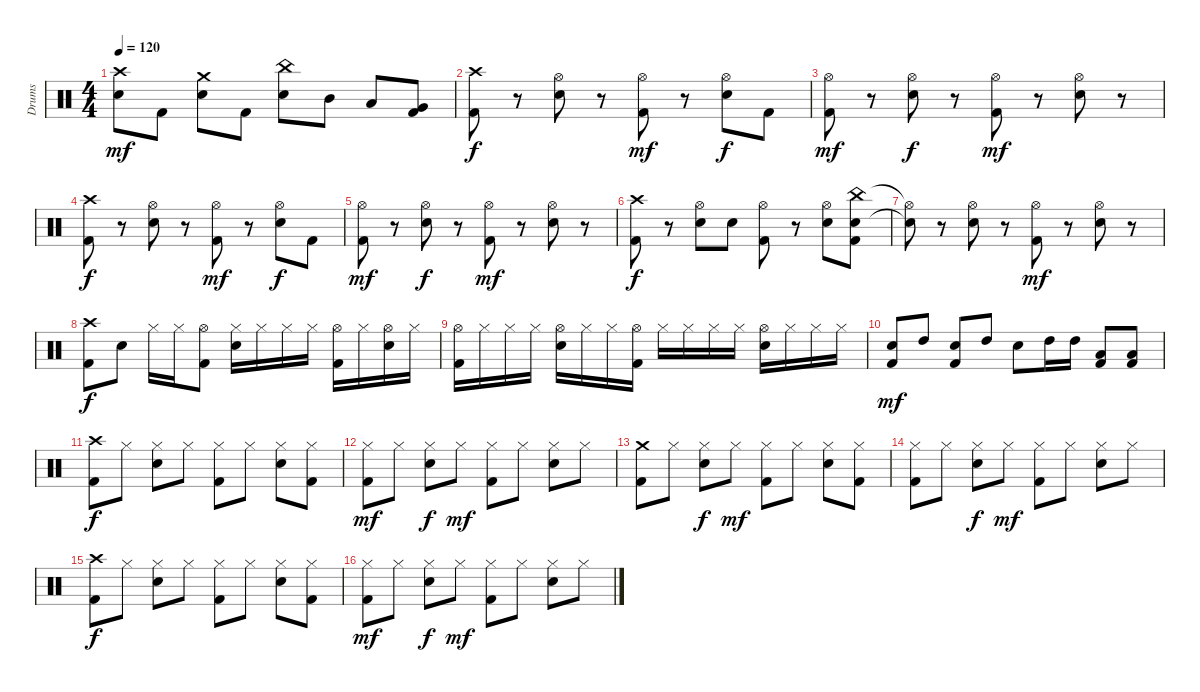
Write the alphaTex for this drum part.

\track ("Drums" "Drums") {instrument percussion}
\staff {score}
\articulation defaults
\ts (4 4)
\tempo 120
\clef neutral
\ks c
("Crash high (hit)" "Snare (hit) 2").8{dy mf} "Kick (hit) 2".8 ("Crash medium (hit)" "Snare (hit) 2").8 "Kick (hit) 2".8 ("China (hit)" "Snare (hit) 2").8 "Mid Tom (hit)".8 "Low Tom (hit)".8 ("Very Low Tom (hit)" "Kick (hit) 2").8 |
("Crash high (hit)" "Kick (hit) 2").8{dy f} r.8 ("Hi-Hat (open)" "Snare (hit) 2").8 r.8 ("Hi-Hat (open)" "Kick (hit) 2").8{dy mf} r.8 ("Hi-Hat (open)" "Snare (hit) 2").8{dy f} "Kick (hit) 2".8 |
("Hi-Hat (open)" "Kick (hit) 2").8{dy mf} r.8 ("Hi-Hat (open)" "Snare (hit) 2").8{dy f} r.8 ("Hi-Hat (open)" "Kick (hit) 2").8{dy mf} r.8 ("Hi-Hat (open)" "Snare (hit) 2").8 r.8 |
("Crash high (hit)" "Kick (hit) 2").8{dy f} r.8 ("Hi-Hat (open)" "Snare (hit) 2").8 r.8 ("Hi-Hat (open)" "Kick (hit) 2").8{dy mf} r.8 ("Hi-Hat (open)" "Snare (hit) 2").8{dy f} "Kick (hit) 2".8 |
("Hi-Hat (open)" "Kick (hit) 2").8{dy mf} r.8 ("Hi-Hat (open)" "Snare (hit) 2").8{dy f} r.8 ("Hi-Hat (open)" "Kick (hit) 2").8{dy mf} r.8 ("Hi-Hat (open)" "Snare (hit) 2").8 r.8 |
("Crash high (hit)" "Kick (hit) 2").8{dy f} r.8 ("Hi-Hat (open)" "Snare (hit) 2").8 "Snare (hit) 2".8 ("Hi-Hat (open)" "Kick (hit) 2").8 r.8 ("Hi-Hat (open)" "Snare (hit) 2").8 ("China (hit)" "Snare (hit) 2" "Kick (hit) 2").8 |
("Hi-Hat (open)"{t} "Snare (hit)"{t}).8 r.8 ("Hi-Hat (open)" "Snare (hit) 2").8 r.8 ("Hi-Hat (open)" "Kick (hit) 2").8{dy mf} r.8 ("Hi-Hat (open)" "Snare (hit) 2").8 r.8 |
("Crash high (hit)" "Kick (hit) 2").8{dy f} "Snare (hit) 2".8 "Hi-Hat (closed)".16 "Hi-Hat (closed)".16 ("Hi-Hat (open)" "Kick (hit) 2").8 ("Hi-Hat (closed)" "Snare (hit) 2").16 "Hi-Hat (closed)".16 "Hi-Hat (closed)".16 "Hi-Hat (closed)".16 ("Hi-Hat (open)" "Kick (hit) 2").16 "Hi-Hat (closed)".16 ("Hi-Hat (open)" "Snare (hit) 2").16 "Hi-Hat (closed)".16 |
("Hi-Hat (open)" "Kick (hit) 2").16 "Hi-Hat (closed)".16 "Hi-Hat (closed)".16 "Hi-Hat (closed)".16 ("Hi-Hat (open)" "Snare (hit) 2").16 "Hi-Hat (closed)".16 "Hi-Hat (closed)".16 ("Hi-Hat (open)" "Kick (hit) 2").16 "Hi-Hat (closed)".16 "Hi-Hat (closed)".16 "Hi-Hat (closed)".16 "Hi-Hat (closed)".16 ("Hi-Hat (open)" "Snare (hit) 2").16 "Hi-Hat (closed)".16 "Hi-Hat (closed)".16 "Hi-Hat (closed)".16 |
("Snare (hit) 2" "Kick (hit) 2").8{dy mf} "High Tom (hit)".8 ("Snare (hit) 2" "Kick (hit) 2").8 "High Tom (hit)".8 "Snare (hit) 2".8 "High Tom (hit)".16 "High Tom (hit)".16 ("Low Tom (hit)" "Kick (hit) 2").8 ("Low Floor Tom (hit)" "Kick (hit) 2").8 |
("Crash high (hit)" "Kick (hit) 2").8{dy f} "Hi-Hat (closed)".8 ("Hi-Hat (closed)" "Snare (hit) 2").8 "Hi-Hat (closed)".8 ("Hi-Hat (closed)" "Kick (hit) 2").8 "Hi-Hat (closed)".8 ("Hi-Hat (closed)" "Snare (hit) 2").8 ("Hi-Hat (closed)" "Kick (hit) 2").8 |
("Hi-Hat (closed)" "Kick (hit) 2").8{dy mf} "Hi-Hat (closed)".8 ("Hi-Hat (closed)" "Snare (hit) 2").8{dy f} "Hi-Hat (closed)".8{dy mf} ("Hi-Hat (closed)" "Kick (hit) 2").8 "Hi-Hat (closed)".8 ("Hi-Hat (closed)" "Snare (hit) 2").8 "Hi-Hat (closed)".8 |
("Crash medium (hit)" "Kick (hit) 2").8 "Hi-Hat (closed)".8 ("Hi-Hat (closed)" "Snare (hit) 2").8{dy f} "Hi-Hat (closed)".8{dy mf} ("Hi-Hat (closed)" "Kick (hit) 2").8 "Hi-Hat (closed)".8 ("Hi-Hat (closed)" "Snare (hit) 2").8 ("Hi-Hat (closed)" "Kick (hit) 2").8 |
("Hi-Hat (closed)" "Kick (hit) 2").8 "Hi-Hat (closed)".8 ("Hi-Hat (closed)" "Snare (hit) 2").8{dy f} "Hi-Hat (closed)".8{dy mf} ("Hi-Hat (closed)" "Kick (hit) 2").8 "Hi-Hat (closed)".8 ("Hi-Hat (closed)" "Snare (hit) 2").8 "Hi-Hat (closed)".8 |
("Crash high (hit)" "Kick (hit) 2").8{dy f} "Hi-Hat (closed)".8 ("Hi-Hat (closed)" "Snare (hit) 2").8 "Hi-Hat (closed)".8 ("Hi-Hat (closed)" "Kick (hit) 2").8 "Hi-Hat (closed)".8 ("Hi-Hat (closed)" "Snare (hit) 2").8 ("Hi-Hat (closed)" "Kick (hit) 2").8 |
("Hi-Hat (closed)" "Kick (hit) 2").8{dy mf} "Hi-Hat (closed)".8 ("Hi-Hat (closed)" "Snare (hit) 2").8{dy f} "Hi-Hat (closed)".8{dy mf} ("Hi-Hat (closed)" "Kick (hit) 2").8 "Hi-Hat (closed)".8 ("Hi-Hat (closed)" "Snare (hit) 2").8 "Hi-Hat (closed)".8
